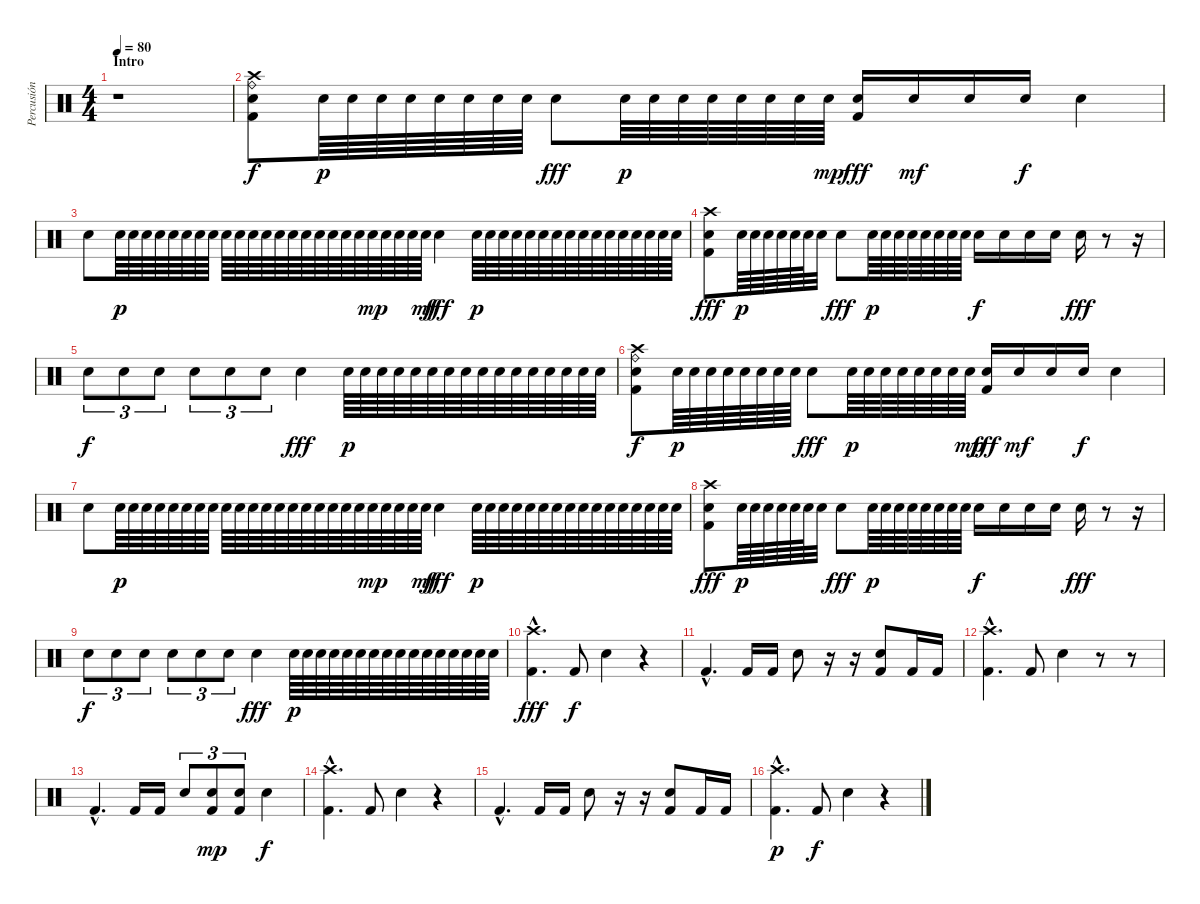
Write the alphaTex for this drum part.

\track ("Percusión" "Percusión") {instrument percussion}
\staff {score}
\articulation defaults
\ts (4 4)
\section ("" "Intro")
\tempo 80
\clef neutral
\ks c
r.1{dy f} |
("Crash high (hit)" "Ride (bell)" "Kick (hit) 2" "Electric Snare (hit)").8 "Electric Snare (hit)".64{dy p} "Electric Snare (hit)".64 "Electric Snare (hit)".64 "Electric Snare (hit)".64 "Electric Snare (hit)".64 "Electric Snare (hit)".64 "Electric Snare (hit)".64 "Electric Snare (hit)".64 "Electric Snare (hit)".8{dy fff} "Electric Snare (hit)".64{dy p} "Electric Snare (hit)".64 "Electric Snare (hit)".64 "Electric Snare (hit)".64 "Electric Snare (hit)".64 "Electric Snare (hit)".64 "Electric Snare (hit)".64 "Electric Snare (hit)".64{dy mp} ("Kick (hit) 2" "Electric Snare (hit)").16{dy fff} "Electric Snare (hit)".16{dy mf} "Electric Snare (hit)".16 "Electric Snare (hit)".16{dy f} "Electric Snare (hit)".4 |
"Electric Snare (hit)".8 "Electric Snare (hit)".64{dy p} "Electric Snare (hit)".64 "Electric Snare (hit)".64 "Electric Snare (hit)".64 "Electric Snare (hit)".64 "Electric Snare (hit)".64 "Electric Snare (hit)".64 "Electric Snare (hit)".64 "Electric Snare (hit)".64 "Electric Snare (hit)".64 "Electric Snare (hit)".64 "Electric Snare (hit)".64 "Electric Snare (hit)".64 "Electric Snare (hit)".64 "Electric Snare (hit)".64 "Electric Snare (hit)".64 "Electric Snare (hit)".64 "Electric Snare (hit)".64 "Electric Snare (hit)".64 "Electric Snare (hit)".64{dy mp} "Electric Snare (hit)".64 "Electric Snare (hit)".64 "Electric Snare (hit)".64 "Electric Snare (hit)".64{dy mf} "Electric Snare (hit)".4{dy fff} "Electric Snare (hit)".64{dy p} "Electric Snare (hit)".64 "Electric Snare (hit)".64 "Electric Snare (hit)".64 "Electric Snare (hit)".64 "Electric Snare (hit)".64 "Electric Snare (hit)".64 "Electric Snare (hit)".64 "Electric Snare (hit)".64 "Electric Snare (hit)".64 "Electric Snare (hit)".64 "Electric Snare (hit)".64 "Electric Snare (hit)".64 "Electric Snare (hit)".64 "Electric Snare (hit)".64 "Electric Snare (hit)".64 |
("Crash high (hit)" "Kick (hit) 2" "Electric Snare (hit)").8{dy fff} "Electric Snare (hit)".64{dy p} "Electric Snare (hit)".64 "Electric Snare (hit)".64 "Electric Snare (hit)".64 "Electric Snare (hit)".64 "Electric Snare (hit)".64 "Electric Snare (hit)".32 "Electric Snare (hit)".8{dy fff} "Electric Snare (hit)".64{dy p} "Electric Snare (hit)".64 "Electric Snare (hit)".64 "Electric Snare (hit)".64 "Electric Snare (hit)".64 "Electric Snare (hit)".64 "Electric Snare (hit)".64 "Electric Snare (hit)".64 "Electric Snare (hit)".16{dy f} "Electric Snare (hit)".16 "Electric Snare (hit)".16 "Electric Snare (hit)".16 "Electric Snare (hit)".16{dy fff} r.8 r.16 |
"Electric Snare (hit)".8{tu (3 2) dy f} "Electric Snare (hit)".8{tu (3 2)} "Electric Snare (hit)".8{tu (3 2)} "Electric Snare (hit)".8{tu (3 2)} "Electric Snare (hit)".8{tu (3 2)} "Electric Snare (hit)".8{tu (3 2)} "Electric Snare (hit)".4{dy fff} "Electric Snare (hit)".64{dy p} "Electric Snare (hit)".64 "Electric Snare (hit)".64 "Electric Snare (hit)".64 "Electric Snare (hit)".64 "Electric Snare (hit)".64 "Electric Snare (hit)".64 "Electric Snare (hit)".64 "Electric Snare (hit)".64 "Electric Snare (hit)".64 "Electric Snare (hit)".64 "Electric Snare (hit)".64 "Electric Snare (hit)".64 "Electric Snare (hit)".64 "Electric Snare (hit)".64 "Electric Snare (hit)".64 |
("Crash high (hit)" "Ride (bell)" "Kick (hit) 2" "Electric Snare (hit)").8{dy f} "Electric Snare (hit)".64{dy p} "Electric Snare (hit)".64 "Electric Snare (hit)".64 "Electric Snare (hit)".64 "Electric Snare (hit)".64 "Electric Snare (hit)".64 "Electric Snare (hit)".64 "Electric Snare (hit)".64 "Electric Snare (hit)".8{dy fff} "Electric Snare (hit)".64{dy p} "Electric Snare (hit)".64 "Electric Snare (hit)".64 "Electric Snare (hit)".64 "Electric Snare (hit)".64 "Electric Snare (hit)".64 "Electric Snare (hit)".64 "Electric Snare (hit)".64{dy mp} ("Kick (hit) 2" "Electric Snare (hit)").16{dy fff} "Electric Snare (hit)".16{dy mf} "Electric Snare (hit)".16 "Electric Snare (hit)".16{dy f} "Electric Snare (hit)".4 |
"Electric Snare (hit)".8 "Electric Snare (hit)".64{dy p} "Electric Snare (hit)".64 "Electric Snare (hit)".64 "Electric Snare (hit)".64 "Electric Snare (hit)".64 "Electric Snare (hit)".64 "Electric Snare (hit)".64 "Electric Snare (hit)".64 "Electric Snare (hit)".64 "Electric Snare (hit)".64 "Electric Snare (hit)".64 "Electric Snare (hit)".64 "Electric Snare (hit)".64 "Electric Snare (hit)".64 "Electric Snare (hit)".64 "Electric Snare (hit)".64 "Electric Snare (hit)".64 "Electric Snare (hit)".64 "Electric Snare (hit)".64 "Electric Snare (hit)".64{dy mp} "Electric Snare (hit)".64 "Electric Snare (hit)".64 "Electric Snare (hit)".64 "Electric Snare (hit)".64{dy mf} "Electric Snare (hit)".4{dy fff} "Electric Snare (hit)".64{dy p} "Electric Snare (hit)".64 "Electric Snare (hit)".64 "Electric Snare (hit)".64 "Electric Snare (hit)".64 "Electric Snare (hit)".64 "Electric Snare (hit)".64 "Electric Snare (hit)".64 "Electric Snare (hit)".64 "Electric Snare (hit)".64 "Electric Snare (hit)".64 "Electric Snare (hit)".64 "Electric Snare (hit)".64 "Electric Snare (hit)".64 "Electric Snare (hit)".64 "Electric Snare (hit)".64 |
("Crash high (hit)" "Kick (hit) 2" "Electric Snare (hit)").8{dy fff} "Electric Snare (hit)".64{dy p} "Electric Snare (hit)".64 "Electric Snare (hit)".64 "Electric Snare (hit)".64 "Electric Snare (hit)".64 "Electric Snare (hit)".64 "Electric Snare (hit)".32 "Electric Snare (hit)".8{dy fff} "Electric Snare (hit)".64{dy p} "Electric Snare (hit)".64 "Electric Snare (hit)".64 "Electric Snare (hit)".64 "Electric Snare (hit)".64 "Electric Snare (hit)".64 "Electric Snare (hit)".64 "Electric Snare (hit)".64 "Electric Snare (hit)".16{dy f} "Electric Snare (hit)".16 "Electric Snare (hit)".16 "Electric Snare (hit)".16 "Electric Snare (hit)".16{dy fff} r.8 r.16 |
"Electric Snare (hit)".8{tu (3 2) dy f} "Electric Snare (hit)".8{tu (3 2)} "Electric Snare (hit)".8{tu (3 2)} "Electric Snare (hit)".8{tu (3 2)} "Electric Snare (hit)".8{tu (3 2)} "Electric Snare (hit)".8{tu (3 2)} "Electric Snare (hit)".4{dy fff} "Electric Snare (hit)".64{dy p} "Electric Snare (hit)".64 "Electric Snare (hit)".64 "Electric Snare (hit)".64 "Electric Snare (hit)".64 "Electric Snare (hit)".64 "Electric Snare (hit)".64 "Electric Snare (hit)".64 "Electric Snare (hit)".64 "Electric Snare (hit)".64 "Electric Snare (hit)".64 "Electric Snare (hit)".64 "Electric Snare (hit)".64 "Electric Snare (hit)".64 "Electric Snare (hit)".64 "Electric Snare (hit)".64 |
("Kick (hit) 2"{hac} "Crash high (hit)"{hac}).4{d dy fff} "Kick (hit) 2".8{dy f} "Electric Snare (hit)".4 r.4 |
"Kick (hit) 2"{hac}.4{d} "Kick (hit) 2".16 "Kick (hit) 2".16 "Electric Snare (hit)".8 r.16 r.16 ("Kick (hit) 2" "Electric Snare (hit)").8 "Kick (hit) 2".16 "Kick (hit) 2".16 |
("Kick (hit) 2"{hac} "Crash high (hit)"{hac}).4{d} "Kick (hit) 2".8 "Electric Snare (hit)".4 r.8 r.8 |
"Kick (hit) 2"{hac}.4{d} "Kick (hit) 2".16 "Kick (hit) 2".16 "Electric Snare (hit)".8{tu (3 2)} ("Kick (hit) 2" "Electric Snare (hit)").8{tu (3 2) dy mp} ("Kick (hit) 2" "Electric Snare (hit)").8{tu (3 2)} "Electric Snare (hit)".4{dy f} |
("Kick (hit) 2"{hac} "Crash high (hit)"{hac}).4{d} "Kick (hit) 2".8 "Electric Snare (hit)".4 r.4 |
"Kick (hit) 2"{hac}.4{d} "Kick (hit) 2".16 "Kick (hit) 2".16 "Electric Snare (hit)".8 r.16 r.16 ("Kick (hit) 2" "Electric Snare (hit)").8 "Kick (hit) 2".16 "Kick (hit) 2".16 |
("Kick (hit) 2"{hac} "Crash high (hit)"{hac}).4{d dy p} "Kick (hit) 2".8{dy f} "Electric Snare (hit)".4 r.4
